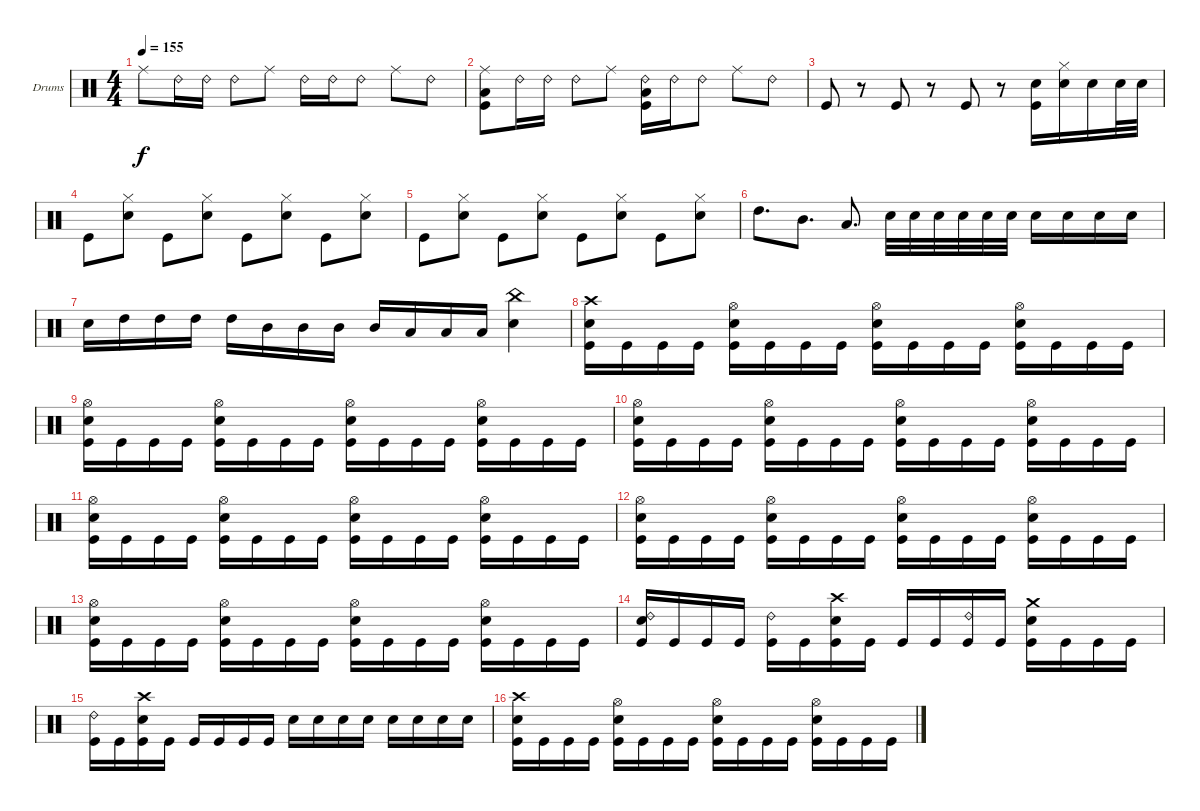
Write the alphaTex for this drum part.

\defaultSystemsLayout 4
\bracketExtendMode groupsimilarinstruments
\firstSystemTrackNameOrientation horizontal
\otherSystemsTrackNameOrientation horizontal
\track ("Drumkit" "Drums") {instrument percussion}
\staff {score}
\articulation defaults
\ts (4 4)
\tempo 155
\clef neutral
\ks c "Ride (middle)".8{dy f} "Ride (bell) 2".16 "Ride (bell) 2".16 "Ride (bell) 2".8 "Ride (middle)".8 "Ride (bell) 2".16 "Ride (bell) 2".16 "Ride (bell) 2".8 "Ride (middle)".8 "Ride (bell) 2".8
|
("Kick (hit)" "Low Tom (hit)" "Ride (middle)").8 "Ride (bell) 2".16 "Ride (bell) 2".16 "Ride (bell) 2".8 "Ride (middle)".8 ("Kick (hit)" "Low Tom (hit)" "Ride (bell) 2").16 "Ride (bell) 2".16 "Ride (bell) 2".8 "Ride (middle)".8 "Ride (bell) 2".8 |
"Kick (hit)".8 r.8 "Kick (hit)".8 r.8 "Kick (hit)".8 r.8 ("Kick (hit)" "Snare (hit) 2").16 ("Snare (hit) 2" "Hi-Hat (closed)").16 "Snare (hit) 2".16 "Snare (hit) 2".32 "Snare (hit) 2".32 |
"Kick (hit)".8 ("Snare (hit) 2" "Hi-Hat (closed)").8 "Kick (hit)".8 ("Snare (hit) 2" "Hi-Hat (closed)").8 "Kick (hit)".8 ("Snare (hit) 2" "Hi-Hat (closed)").8 "Kick (hit)".8 ("Snare (hit) 2" "Hi-Hat (closed)").8 |
"Kick (hit)".8 ("Snare (hit) 2" "Hi-Hat (closed)").8 "Kick (hit)".8 ("Snare (hit) 2" "Hi-Hat (closed)").8 "Kick (hit)".8 ("Snare (hit) 2" "Hi-Hat (closed)").8 "Kick (hit)".8 ("Snare (hit) 2" "Hi-Hat (closed)").8 |
"High Tom (hit)".8{d} "Mid Tom (hit)".8{d} "Low Tom (hit)".8{d} "Snare (hit) 2".32 "Snare (hit) 2".32 "Snare (hit) 2".32 "Snare (hit) 2".32 "Snare (hit) 2".32 "Snare (hit) 2".32 "Snare (hit) 2".16 "Snare (hit) 2".16 "Snare (hit) 2".16 "Snare (hit) 2".16 |
"Snare (hit) 2".16 "High Tom (hit)".16 "High Tom (hit)".16 "High Tom (hit)".16 "High Tom (hit)".16 "Mid Tom (hit)".16 "Mid Tom (hit)".16 "Mid Tom (hit)".16 "Mid Tom (hit)".16 "Low Tom (hit)".16 "Low Tom (hit)".16 "Low Tom (hit)".16 ("Snare (hit) 2" "China (hit)").4 |
("Kick (hit)" "Snare (hit) 2" "Crash high (hit)").16 "Kick (hit)".16 "Kick (hit)".16 "Kick (hit)".16 ("Kick (hit)" "Snare (hit) 2" "Hi-Hat (open)").16 "Kick (hit)".16 "Kick (hit)".16 "Kick (hit)".16 ("Kick (hit)" "Snare (hit) 2" "Hi-Hat (open)").16 "Kick (hit)".16 "Kick (hit)".16 "Kick (hit)".16 ("Kick (hit)" "Snare (hit) 2" "Hi-Hat (open)").16 "Kick (hit)".16 "Kick (hit)".16 "Kick (hit)".16 |
("Kick (hit)" "Snare (hit) 2" "Hi-Hat (open)").16 "Kick (hit)".16 "Kick (hit)".16 "Kick (hit)".16 ("Kick (hit)" "Snare (hit) 2" "Hi-Hat (open)").16 "Kick (hit)".16 "Kick (hit)".16 "Kick (hit)".16 ("Kick (hit)" "Snare (hit) 2" "Hi-Hat (open)").16 "Kick (hit)".16 "Kick (hit)".16 "Kick (hit)".16 ("Kick (hit)" "Snare (hit) 2" "Hi-Hat (open)").16 "Kick (hit)".16 "Kick (hit)".16 "Kick (hit)".16 |
("Kick (hit)" "Snare (hit) 2" "Hi-Hat (open)").16 "Kick (hit)".16 "Kick (hit)".16 "Kick (hit)".16 ("Kick (hit)" "Snare (hit) 2" "Hi-Hat (open)").16 "Kick (hit)".16 "Kick (hit)".16 "Kick (hit)".16 ("Kick (hit)" "Snare (hit) 2" "Hi-Hat (open)").16 "Kick (hit)".16 "Kick (hit)".16 "Kick (hit)".16 ("Kick (hit)" "Snare (hit) 2" "Hi-Hat (open)").16 "Kick (hit)".16 "Kick (hit)".16 "Kick (hit)".16 |
("Kick (hit)" "Snare (hit) 2" "Hi-Hat (open)").16 "Kick (hit)".16 "Kick (hit)".16 "Kick (hit)".16 ("Kick (hit)" "Snare (hit) 2" "Hi-Hat (open)").16 "Kick (hit)".16 "Kick (hit)".16 "Kick (hit)".16 ("Kick (hit)" "Snare (hit) 2" "Hi-Hat (open)").16 "Kick (hit)".16 "Kick (hit)".16 "Kick (hit)".16 ("Kick (hit)" "Snare (hit) 2" "Hi-Hat (open)").16 "Kick (hit)".16 "Kick (hit)".16 "Kick (hit)".16 |
("Kick (hit)" "Snare (hit) 2" "Hi-Hat (open)").16 "Kick (hit)".16 "Kick (hit)".16 "Kick (hit)".16 ("Kick (hit)" "Snare (hit) 2" "Hi-Hat (open)").16 "Kick (hit)".16 "Kick (hit)".16 "Kick (hit)".16 ("Kick (hit)" "Snare (hit) 2" "Hi-Hat (open)").16 "Kick (hit)".16 "Kick (hit)".16 "Kick (hit)".16 ("Kick (hit)" "Snare (hit) 2" "Hi-Hat (open)").16 "Kick (hit)".16 "Kick (hit)".16 "Kick (hit)".16 |
("Kick (hit)" "Snare (hit) 2" "Hi-Hat (open)").16 "Kick (hit)".16 "Kick (hit)".16 "Kick (hit)".16 ("Kick (hit)" "Snare (hit) 2" "Hi-Hat (open)").16 "Kick (hit)".16 "Kick (hit)".16 "Kick (hit)".16 ("Kick (hit)" "Snare (hit) 2" "Hi-Hat (open)").16 "Kick (hit)".16 "Kick (hit)".16 "Kick (hit)".16 ("Kick (hit)" "Snare (hit) 2" "Hi-Hat (open)").16 "Kick (hit)".16 "Kick (hit)".16 "Kick (hit)".16 |
("Kick (hit)" "Snare (hit) 2" "Ride (bell) 2").16 "Kick (hit)".16 "Kick (hit)".16 "Kick (hit)".16 ("Kick (hit)" "Ride (bell) 2").16 "Kick (hit)".16 ("Kick (hit)" "Snare (hit) 2" "Crash high (hit)").16 "Kick (hit)".16 "Kick (hit)".16 "Kick (hit)".16 ("Kick (hit)" "Ride (bell) 2").16 "Kick (hit)".16 ("Kick (hit)" "Snare (hit) 2" "Crash medium (hit)").16 "Kick (hit)".16 "Kick (hit)".16 "Kick (hit)".16 |
("Kick (hit)" "Ride (bell) 2").16 "Kick (hit)".16 ("Kick (hit)" "Snare (hit) 2" "Crash high (hit)").16 "Kick (hit)".16 "Kick (hit)".16 "Kick (hit)".16 "Kick (hit)".16 "Kick (hit)".16 "Snare (hit) 2".16 "Snare (hit) 2".16 "Snare (hit) 2".16 "Snare (hit) 2".16 "Snare (hit) 2".16 "Snare (hit) 2".16 "Snare (hit) 2".16 "Snare (hit) 2".16 |
("Kick (hit)" "Snare (hit) 2" "Crash high (hit)").16 "Kick (hit)".16 "Kick (hit)".16 "Kick (hit)".16 ("Kick (hit)" "Snare (hit) 2" "Hi-Hat (open)").16 "Kick (hit)".16 "Kick (hit)".16 "Kick (hit)".16 ("Kick (hit)" "Snare (hit) 2" "Hi-Hat (open)").16 "Kick (hit)".16 "Kick (hit)".16 "Kick (hit)".16 ("Kick (hit)" "Snare (hit) 2" "Hi-Hat (open)").16 "Kick (hit)".16 "Kick (hit)".16 "Kick (hit)".16
